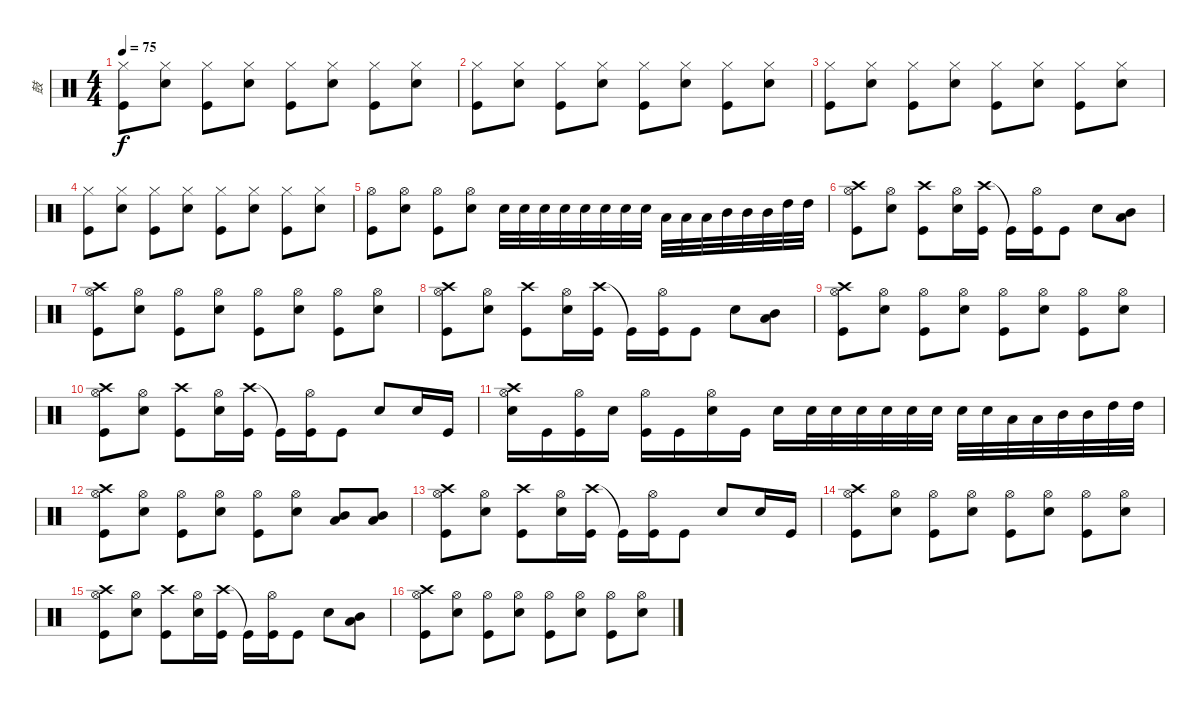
\track ("鼓" "鼓") {instrument percussion}
\staff {score}
\articulation defaults
\ts (4 4)
\tempo 75
\clef neutral
\ks c
("Hi-Hat (closed)" "Kick (hit)").8{dy f} ("Hi-Hat (closed)" "Electric Snare (hit)").8 ("Hi-Hat (closed)" "Kick (hit)").8 ("Hi-Hat (closed)" "Electric Snare (hit)").8 ("Hi-Hat (closed)" "Kick (hit)").8 ("Hi-Hat (closed)" "Electric Snare (hit)").8 ("Hi-Hat (closed)" "Kick (hit)").8 ("Hi-Hat (closed)" "Electric Snare (hit)").8 |
("Hi-Hat (closed)" "Kick (hit)").8 ("Hi-Hat (closed)" "Electric Snare (hit)").8 ("Hi-Hat (closed)" "Kick (hit)").8 ("Hi-Hat (closed)" "Electric Snare (hit)").8 ("Hi-Hat (closed)" "Kick (hit)").8 ("Hi-Hat (closed)" "Electric Snare (hit)").8 ("Hi-Hat (closed)" "Kick (hit)").8 ("Hi-Hat (closed)" "Electric Snare (hit)").8 |
("Hi-Hat (closed)" "Kick (hit)").8 ("Hi-Hat (closed)" "Electric Snare (hit)").8 ("Hi-Hat (closed)" "Kick (hit)").8 ("Hi-Hat (closed)" "Electric Snare (hit)").8 ("Hi-Hat (closed)" "Kick (hit)").8 ("Hi-Hat (closed)" "Electric Snare (hit)").8 ("Hi-Hat (closed)" "Kick (hit)").8 ("Hi-Hat (closed)" "Electric Snare (hit)").8 |
("Hi-Hat (closed)" "Kick (hit)").8 ("Hi-Hat (closed)" "Electric Snare (hit)").8 ("Hi-Hat (closed)" "Kick (hit)").8 ("Hi-Hat (closed)" "Electric Snare (hit)").8 ("Hi-Hat (closed)" "Kick (hit)").8 ("Hi-Hat (closed)" "Electric Snare (hit)").8 ("Hi-Hat (closed)" "Kick (hit)").8 ("Hi-Hat (closed)" "Electric Snare (hit)").8 |
("Hi-Hat (open)" "Kick (hit)").8 ("Hi-Hat (open)" "Electric Snare (hit)").8 ("Hi-Hat (open)" "Kick (hit)").8 ("Hi-Hat (open)" "Electric Snare (hit)").8 "Electric Snare (hit)".32 "Electric Snare (hit)".32 "Electric Snare (hit)".32 "Electric Snare (hit)".32 "Electric Snare (hit)".32 "Electric Snare (hit)".32 "Electric Snare (hit)".32 "Electric Snare (hit)".32 "Low Tom (hit)".32 "Low Tom (hit)".32 "Low Tom (hit)".32 "Mid Tom (hit)".32 "Mid Tom (hit)".32 "Mid Tom (hit)".32 "High Tom (hit)".32 "High Tom (hit)".32 |
("Crash high (hit)" "Hi-Hat (open)" "Kick (hit)").8 ("Hi-Hat (open)" "Electric Snare (hit)").8 ("Crash high (hit)" "Kick (hit)").8 ("Hi-Hat (open)" "Electric Snare (hit)").16 ("Crash high (hit)" "Kick (hit)").16 "Kick (hit)"{t}.16 ("Hi-Hat (open)" "Kick (hit)").16 "Kick (hit)".8 "Electric Snare (hit)".8 ("Mid Tom (hit)" "Low Tom (hit)").8 |
("Crash high (hit)" "Hi-Hat (open)" "Kick (hit)").8 ("Hi-Hat (open)" "Electric Snare (hit)").8 ("Hi-Hat (open)" "Kick (hit)").8 ("Hi-Hat (open)" "Electric Snare (hit)").8 ("Hi-Hat (open)" "Kick (hit)").8 ("Hi-Hat (open)" "Electric Snare (hit)").8 ("Hi-Hat (open)" "Kick (hit)").8 ("Hi-Hat (open)" "Electric Snare (hit)").8 |
("Crash high (hit)" "Hi-Hat (open)" "Kick (hit)").8 ("Hi-Hat (open)" "Electric Snare (hit)").8 ("Crash high (hit)" "Kick (hit)").8 ("Hi-Hat (open)" "Electric Snare (hit)").16 ("Crash high (hit)" "Kick (hit)").16 "Kick (hit)"{t}.16 ("Hi-Hat (open)" "Kick (hit)").16 "Kick (hit)".8 "Electric Snare (hit)".8 ("Mid Tom (hit)" "Low Tom (hit)").8 |
("Crash high (hit)" "Hi-Hat (open)" "Kick (hit)").8 ("Hi-Hat (open)" "Electric Snare (hit)").8 ("Hi-Hat (open)" "Kick (hit)").8 ("Hi-Hat (open)" "Electric Snare (hit)").8 ("Hi-Hat (open)" "Kick (hit)").8 ("Hi-Hat (open)" "Electric Snare (hit)").8 ("Hi-Hat (open)" "Kick (hit)").8 ("Hi-Hat (open)" "Electric Snare (hit)").8 |
("Crash high (hit)" "Hi-Hat (open)" "Kick (hit)").8 ("Hi-Hat (open)" "Electric Snare (hit)").8 ("Crash high (hit)" "Kick (hit)").8 ("Hi-Hat (open)" "Electric Snare (hit)").16 ("Crash high (hit)" "Kick (hit)").16 "Kick (hit)"{t}.16 ("Hi-Hat (open)" "Kick (hit)").16 "Kick (hit)".8 "Electric Snare (hit)".8 "Electric Snare (hit)".16 "Kick (hit)".16 |
("Crash high (hit)" "Hi-Hat (open)" "Electric Snare (hit)").16 "Kick (hit)".16 ("Hi-Hat (open)" "Kick (hit)").16 "Electric Snare (hit)".16 ("Hi-Hat (open)" "Kick (hit)").16 "Kick (hit)".16 ("Hi-Hat (open)" "Electric Snare (hit)").16 "Kick (hit)".16 "Electric Snare (hit)".16 "Electric Snare (hit)".32 "Electric Snare (hit)".32 "Electric Snare (hit)".32 "Electric Snare (hit)".32 "Electric Snare (hit)".32 "Electric Snare (hit)".32 "Electric Snare (hit)".32 "Electric Snare (hit)".32 "Low Tom (hit)".32 "Low Tom (hit)".32 "Mid Tom (hit)".32 "Mid Tom (hit)".32 "High Tom (hit)".32 "High Tom (hit)".32 |
("Crash high (hit)" "Hi-Hat (open)" "Kick (hit)").8 ("Hi-Hat (open)" "Electric Snare (hit)").8 ("Hi-Hat (open)" "Kick (hit)").8 ("Hi-Hat (open)" "Electric Snare (hit)").8 ("Hi-Hat (open)" "Kick (hit)").8 ("Hi-Hat (open)" "Electric Snare (hit)").8 ("Mid Tom (hit)" "Low Tom (hit)").8 ("Mid Tom (hit)" "Low Tom (hit)").8 |
("Crash high (hit)" "Hi-Hat (open)" "Kick (hit)").8 ("Hi-Hat (open)" "Electric Snare (hit)").8 ("Crash high (hit)" "Kick (hit)").8 ("Hi-Hat (open)" "Electric Snare (hit)").16 ("Crash high (hit)" "Kick (hit)").16 "Kick (hit)"{t}.16 ("Hi-Hat (open)" "Kick (hit)").16 "Kick (hit)".8 "Electric Snare (hit)".8 "Electric Snare (hit)".16 "Kick (hit)".16 |
("Crash high (hit)" "Hi-Hat (open)" "Kick (hit)").8 ("Hi-Hat (open)" "Electric Snare (hit)").8 ("Hi-Hat (open)" "Kick (hit)").8 ("Hi-Hat (open)" "Electric Snare (hit)").8 ("Hi-Hat (open)" "Kick (hit)").8 ("Hi-Hat (open)" "Electric Snare (hit)").8 ("Hi-Hat (open)" "Kick (hit)").8 ("Hi-Hat (open)" "Electric Snare (hit)").8 |
("Crash high (hit)" "Hi-Hat (open)" "Kick (hit)").8 ("Hi-Hat (open)" "Electric Snare (hit)").8 ("Crash high (hit)" "Kick (hit)").8 ("Hi-Hat (open)" "Electric Snare (hit)").16 ("Crash high (hit)" "Kick (hit)").16 "Kick (hit)"{t}.16 ("Hi-Hat (open)" "Kick (hit)").16 "Kick (hit)".8 "Electric Snare (hit)".8 ("Mid Tom (hit)" "Low Tom (hit)").8 |
("Crash high (hit)" "Hi-Hat (open)" "Kick (hit)").8 ("Hi-Hat (open)" "Electric Snare (hit)").8 ("Hi-Hat (open)" "Kick (hit)").8 ("Hi-Hat (open)" "Electric Snare (hit)").8 ("Hi-Hat (open)" "Kick (hit)").8 ("Hi-Hat (open)" "Electric Snare (hit)").8 ("Hi-Hat (open)" "Kick (hit)").8 ("Hi-Hat (open)" "Electric Snare (hit)").8
